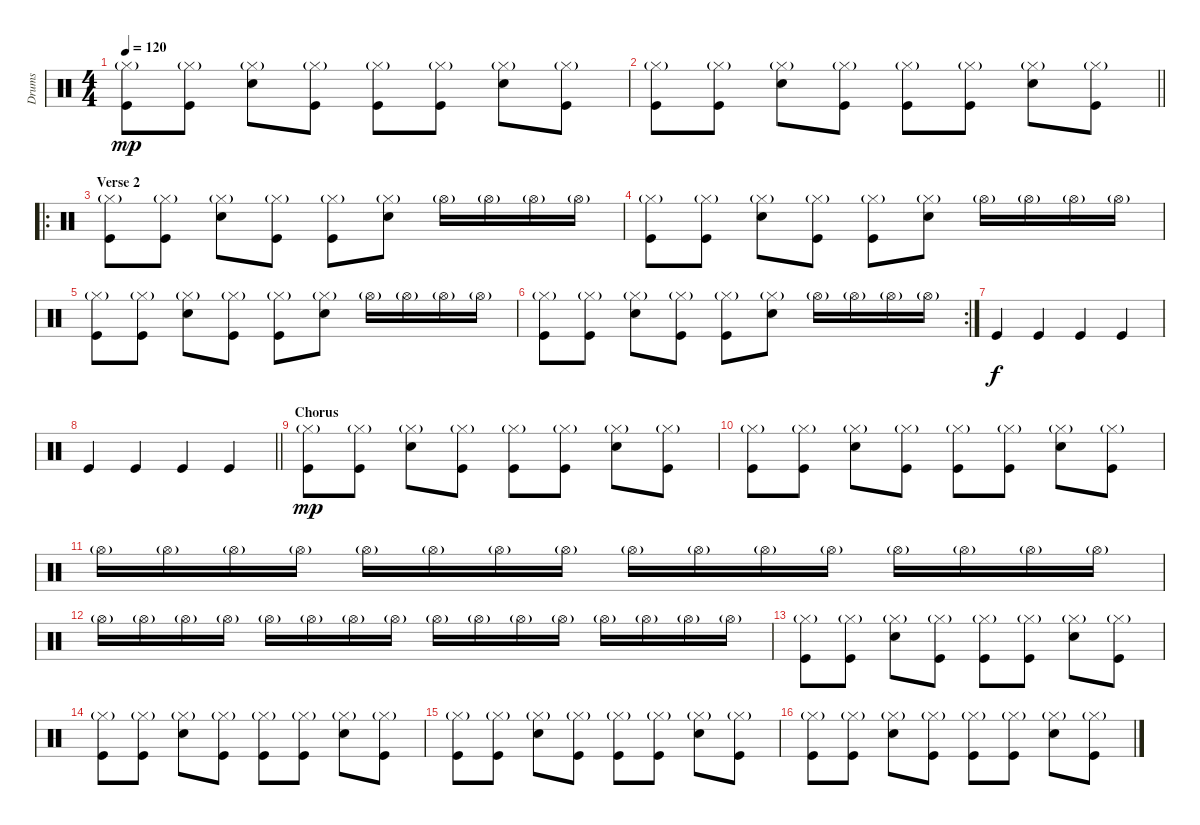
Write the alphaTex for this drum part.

\track ("Drums" "Drums") {instrument percussion}
\staff {score}
\articulation defaults
\ts (4 4)
\tempo 120
\clef neutral
\ks c
("Hi-Hat (closed)"{g} "Kick (hit)").8{dy mp} ("Hi-Hat (closed)"{g} "Kick (hit)").8 ("Hi-Hat (closed)"{g} "Electric Snare (hit)").8 ("Hi-Hat (closed)"{g} "Kick (hit)").8 ("Hi-Hat (closed)"{g} "Kick (hit)").8 ("Hi-Hat (closed)"{g} "Kick (hit)").8 ("Hi-Hat (closed)"{g} "Electric Snare (hit)").8 ("Hi-Hat (closed)"{g} "Kick (hit)").8 |
\barLineRight lightlight
("Hi-Hat (closed)"{g} "Kick (hit)").8 ("Hi-Hat (closed)"{g} "Kick (hit)").8 ("Hi-Hat (closed)"{g} "Electric Snare (hit)").8 ("Hi-Hat (closed)"{g} "Kick (hit)").8 ("Hi-Hat (closed)"{g} "Kick (hit)").8 ("Hi-Hat (closed)"{g} "Kick (hit)").8 ("Hi-Hat (closed)"{g} "Electric Snare (hit)").8 ("Hi-Hat (closed)"{g} "Kick (hit)").8 |
\ro
\section ("" "Verse 2")
("Hi-Hat (closed)"{g} "Kick (hit)").8 ("Hi-Hat (closed)"{g} "Kick (hit)").8 ("Hi-Hat (closed)"{g} "Electric Snare (hit)").8 ("Hi-Hat (closed)"{g} "Kick (hit)").8 ("Hi-Hat (closed)"{g} "Kick (hit)").8 ("Hi-Hat (closed)"{g} "Electric Snare (hit)").8 "Hi-Hat (open)"{g}.16 "Hi-Hat (open)"{g}.16 "Hi-Hat (open)"{g}.16 "Hi-Hat (open)"{g}.16 |
("Hi-Hat (closed)"{g} "Kick (hit)").8 ("Hi-Hat (closed)"{g} "Kick (hit)").8 ("Hi-Hat (closed)"{g} "Electric Snare (hit)").8 ("Hi-Hat (closed)"{g} "Kick (hit)").8 ("Hi-Hat (closed)"{g} "Kick (hit)").8 ("Hi-Hat (closed)"{g} "Electric Snare (hit)").8 "Hi-Hat (open)"{g}.16 "Hi-Hat (open)"{g}.16 "Hi-Hat (open)"{g}.16 "Hi-Hat (open)"{g}.16 |
("Hi-Hat (closed)"{g} "Kick (hit)").8 ("Hi-Hat (closed)"{g} "Kick (hit)").8 ("Hi-Hat (closed)"{g} "Electric Snare (hit)").8 ("Hi-Hat (closed)"{g} "Kick (hit)").8 ("Hi-Hat (closed)"{g} "Kick (hit)").8 ("Hi-Hat (closed)"{g} "Electric Snare (hit)").8 "Hi-Hat (open)"{g}.16 "Hi-Hat (open)"{g}.16 "Hi-Hat (open)"{g}.16 "Hi-Hat (open)"{g}.16 |
\rc 2
("Hi-Hat (closed)"{g} "Kick (hit)").8 ("Hi-Hat (closed)"{g} "Kick (hit)").8 ("Hi-Hat (closed)"{g} "Electric Snare (hit)").8 ("Hi-Hat (closed)"{g} "Kick (hit)").8 ("Hi-Hat (closed)"{g} "Kick (hit)").8 ("Hi-Hat (closed)"{g} "Electric Snare (hit)").8 "Hi-Hat (open)"{g}.16 "Hi-Hat (open)"{g}.16 "Hi-Hat (open)"{g}.16 "Hi-Hat (open)"{g}.16 |
"Kick (hit)".4{dy f} "Kick (hit)".4 "Kick (hit)".4 "Kick (hit)".4 |
\barLineRight lightlight "Kick (hit)".4 "Kick (hit)".4 "Kick (hit)".4 "Kick (hit)".4
|
\section ("" "Chorus")
("Hi-Hat (closed)"{g} "Kick (hit)").8{dy mp} ("Hi-Hat (closed)"{g} "Kick (hit)").8 ("Hi-Hat (closed)"{g} "Electric Snare (hit)").8 ("Hi-Hat (closed)"{g} "Kick (hit)").8 ("Hi-Hat (closed)"{g} "Kick (hit)").8 ("Hi-Hat (closed)"{g} "Kick (hit)").8 ("Hi-Hat (closed)"{g} "Electric Snare (hit)").8 ("Hi-Hat (closed)"{g} "Kick (hit)").8 |
("Hi-Hat (closed)"{g} "Kick (hit)").8 ("Hi-Hat (closed)"{g} "Kick (hit)").8 ("Hi-Hat (closed)"{g} "Electric Snare (hit)").8 ("Hi-Hat (closed)"{g} "Kick (hit)").8 ("Hi-Hat (closed)"{g} "Kick (hit)").8 ("Hi-Hat (closed)"{g} "Kick (hit)").8 ("Hi-Hat (closed)"{g} "Electric Snare (hit)").8 ("Hi-Hat (closed)"{g} "Kick (hit)").8 |
"Hi-Hat (open)"{g}.16 "Hi-Hat (open)"{g}.16 "Hi-Hat (open)"{g}.16 "Hi-Hat (open)"{g}.16 "Hi-Hat (open)"{g}.16 "Hi-Hat (open)"{g}.16 "Hi-Hat (open)"{g}.16 "Hi-Hat (open)"{g}.16 "Hi-Hat (open)"{g}.16 "Hi-Hat (open)"{g}.16 "Hi-Hat (open)"{g}.16 "Hi-Hat (open)"{g}.16 "Hi-Hat (open)"{g}.16 "Hi-Hat (open)"{g}.16 "Hi-Hat (open)"{g}.16 "Hi-Hat (open)"{g}.16 |
"Hi-Hat (open)"{g}.16 "Hi-Hat (open)"{g}.16 "Hi-Hat (open)"{g}.16 "Hi-Hat (open)"{g}.16 "Hi-Hat (open)"{g}.16 "Hi-Hat (open)"{g}.16 "Hi-Hat (open)"{g}.16 "Hi-Hat (open)"{g}.16 "Hi-Hat (open)"{g}.16 "Hi-Hat (open)"{g}.16 "Hi-Hat (open)"{g}.16 "Hi-Hat (open)"{g}.16 "Hi-Hat (open)"{g}.16 "Hi-Hat (open)"{g}.16 "Hi-Hat (open)"{g}.16 "Hi-Hat (open)"{g}.16 |
("Hi-Hat (closed)"{g} "Kick (hit)").8 ("Hi-Hat (closed)"{g} "Kick (hit)").8 ("Hi-Hat (closed)"{g} "Electric Snare (hit)").8 ("Hi-Hat (closed)"{g} "Kick (hit)").8 ("Hi-Hat (closed)"{g} "Kick (hit)").8 ("Hi-Hat (closed)"{g} "Kick (hit)").8 ("Hi-Hat (closed)"{g} "Electric Snare (hit)").8 ("Hi-Hat (closed)"{g} "Kick (hit)").8 |
("Hi-Hat (closed)"{g} "Kick (hit)").8 ("Hi-Hat (closed)"{g} "Kick (hit)").8 ("Hi-Hat (closed)"{g} "Electric Snare (hit)").8 ("Hi-Hat (closed)"{g} "Kick (hit)").8 ("Hi-Hat (closed)"{g} "Kick (hit)").8 ("Hi-Hat (closed)"{g} "Kick (hit)").8 ("Hi-Hat (closed)"{g} "Electric Snare (hit)").8 ("Hi-Hat (closed)"{g} "Kick (hit)").8 |
("Hi-Hat (closed)"{g} "Kick (hit)").8 ("Hi-Hat (closed)"{g} "Kick (hit)").8 ("Hi-Hat (closed)"{g} "Electric Snare (hit)").8 ("Hi-Hat (closed)"{g} "Kick (hit)").8 ("Hi-Hat (closed)"{g} "Kick (hit)").8 ("Hi-Hat (closed)"{g} "Kick (hit)").8 ("Hi-Hat (closed)"{g} "Electric Snare (hit)").8 ("Hi-Hat (closed)"{g} "Kick (hit)").8 |
("Hi-Hat (closed)"{g} "Kick (hit)").8 ("Hi-Hat (closed)"{g} "Kick (hit)").8 ("Hi-Hat (closed)"{g} "Electric Snare (hit)").8 ("Hi-Hat (closed)"{g} "Kick (hit)").8 ("Hi-Hat (closed)"{g} "Kick (hit)").8 ("Hi-Hat (closed)"{g} "Kick (hit)").8 ("Hi-Hat (closed)"{g} "Electric Snare (hit)").8 ("Hi-Hat (closed)"{g} "Kick (hit)").8
